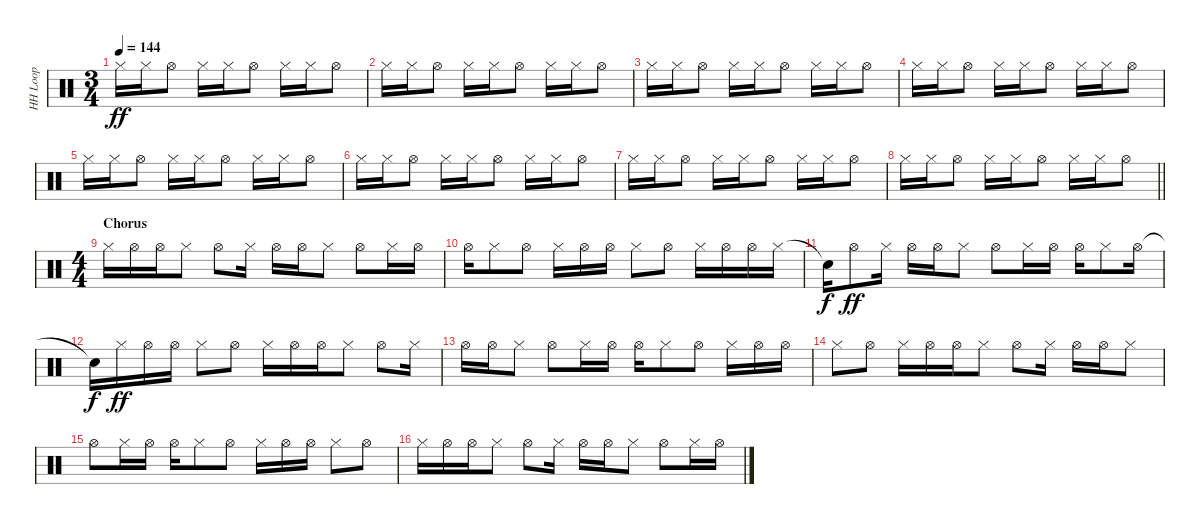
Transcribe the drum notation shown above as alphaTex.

\track ("HH Loop" "HH Loop") {instrument percussion}
\staff {score}
\articulation defaults
\ts (3 4)
\tempo 144
\clef neutral
\ks c "Hi-Hat (closed)".16{dy ff} "Hi-Hat (closed)".16 "Hi-Hat (open)".8 "Hi-Hat (closed)".16 "Hi-Hat (closed)".16 "Hi-Hat (open)".8 "Hi-Hat (closed)".16 "Hi-Hat (closed)".16 "Hi-Hat (open)".8
|
"Hi-Hat (closed)".16 "Hi-Hat (closed)".16 "Hi-Hat (open)".8 "Hi-Hat (closed)".16 "Hi-Hat (closed)".16 "Hi-Hat (open)".8 "Hi-Hat (closed)".16 "Hi-Hat (closed)".16 "Hi-Hat (open)".8 |
"Hi-Hat (closed)".16 "Hi-Hat (closed)".16 "Hi-Hat (open)".8 "Hi-Hat (closed)".16 "Hi-Hat (closed)".16 "Hi-Hat (open)".8 "Hi-Hat (closed)".16 "Hi-Hat (closed)".16 "Hi-Hat (open)".8 |
"Hi-Hat (closed)".16 "Hi-Hat (closed)".16 "Hi-Hat (open)".8 "Hi-Hat (closed)".16 "Hi-Hat (closed)".16 "Hi-Hat (open)".8 "Hi-Hat (closed)".16 "Hi-Hat (closed)".16 "Hi-Hat (open)".8 |
"Hi-Hat (closed)".16 "Hi-Hat (closed)".16 "Hi-Hat (open)".8 "Hi-Hat (closed)".16 "Hi-Hat (closed)".16 "Hi-Hat (open)".8 "Hi-Hat (closed)".16 "Hi-Hat (closed)".16 "Hi-Hat (open)".8 |
"Hi-Hat (closed)".16 "Hi-Hat (closed)".16 "Hi-Hat (open)".8 "Hi-Hat (closed)".16 "Hi-Hat (closed)".16 "Hi-Hat (open)".8 "Hi-Hat (closed)".16 "Hi-Hat (closed)".16 "Hi-Hat (open)".8 |
"Hi-Hat (closed)".16 "Hi-Hat (closed)".16 "Hi-Hat (open)".8 "Hi-Hat (closed)".16 "Hi-Hat (closed)".16 "Hi-Hat (open)".8 "Hi-Hat (closed)".16 "Hi-Hat (closed)".16 "Hi-Hat (open)".8 |
\barLineRight lightlight "Hi-Hat (closed)".16 "Hi-Hat (closed)".16 "Hi-Hat (open)".8 "Hi-Hat (closed)".16 "Hi-Hat (closed)".16 "Hi-Hat (open)".8 "Hi-Hat (closed)".16 "Hi-Hat (closed)".16 "Hi-Hat (open)".8
|
\ts (4 4)
\section ("" "Chorus")
"Hi-Hat (closed)".16 "Hi-Hat (open)".16 "Hi-Hat (open)".16 "Hi-Hat (closed)".8 "Hi-Hat (open)".8 "Hi-Hat (closed)".16 "Hi-Hat (open)".16 "Hi-Hat (open)".16 "Hi-Hat (closed)".8 "Hi-Hat (open)".8 "Hi-Hat (closed)".16 "Hi-Hat (open)".16 |
"Hi-Hat (open)".16 "Hi-Hat (closed)".8 "Hi-Hat (open)".8 "Hi-Hat (closed)".16 "Hi-Hat (open)".16 "Hi-Hat (open)".16 "Hi-Hat (closed)".8 "Hi-Hat (open)".8 "Hi-Hat (closed)".16 "Hi-Hat (open)".16 "Hi-Hat (open)".16 "Hi-Hat (closed)".16 |
"Snare (hit)"{t}.16{dy f} "Hi-Hat (open)".8{dy ff} "Hi-Hat (closed)".16 "Hi-Hat (open)".16 "Hi-Hat (open)".16 "Hi-Hat (closed)".8 "Hi-Hat (open)".8 "Hi-Hat (closed)".16 "Hi-Hat (open)".16 "Hi-Hat (open)".16 "Hi-Hat (closed)".8 "Hi-Hat (open)".16 |
"Snare (hit)"{t}.16{dy f} "Hi-Hat (closed)".16{dy ff} "Hi-Hat (open)".16 "Hi-Hat (open)".16 "Hi-Hat (closed)".8 "Hi-Hat (open)".8 "Hi-Hat (closed)".16 "Hi-Hat (open)".16 "Hi-Hat (open)".16 "Hi-Hat (closed)".8 "Hi-Hat (open)".8 "Hi-Hat (closed)".16 |
"Hi-Hat (open)".16 "Hi-Hat (open)".16 "Hi-Hat (closed)".8 "Hi-Hat (open)".8 "Hi-Hat (closed)".16 "Hi-Hat (open)".16 "Hi-Hat (open)".16 "Hi-Hat (closed)".8 "Hi-Hat (open)".8 "Hi-Hat (closed)".16 "Hi-Hat (open)".16 "Hi-Hat (open)".16 |
"Hi-Hat (closed)".8 "Hi-Hat (open)".8 "Hi-Hat (closed)".16 "Hi-Hat (open)".16 "Hi-Hat (open)".16 "Hi-Hat (closed)".8 "Hi-Hat (open)".8 "Hi-Hat (closed)".16 "Hi-Hat (open)".16 "Hi-Hat (open)".16 "Hi-Hat (closed)".8 |
"Hi-Hat (open)".8 "Hi-Hat (closed)".16 "Hi-Hat (open)".16 "Hi-Hat (open)".16 "Hi-Hat (closed)".8 "Hi-Hat (open)".8 "Hi-Hat (closed)".16 "Hi-Hat (open)".16 "Hi-Hat (open)".16 "Hi-Hat (closed)".8 "Hi-Hat (open)".8 |
"Hi-Hat (closed)".16 "Hi-Hat (open)".16 "Hi-Hat (open)".16 "Hi-Hat (closed)".8 "Hi-Hat (open)".8 "Hi-Hat (closed)".16 "Hi-Hat (open)".16 "Hi-Hat (open)".16 "Hi-Hat (closed)".8 "Hi-Hat (open)".8 "Hi-Hat (closed)".16 "Hi-Hat (open)".16
